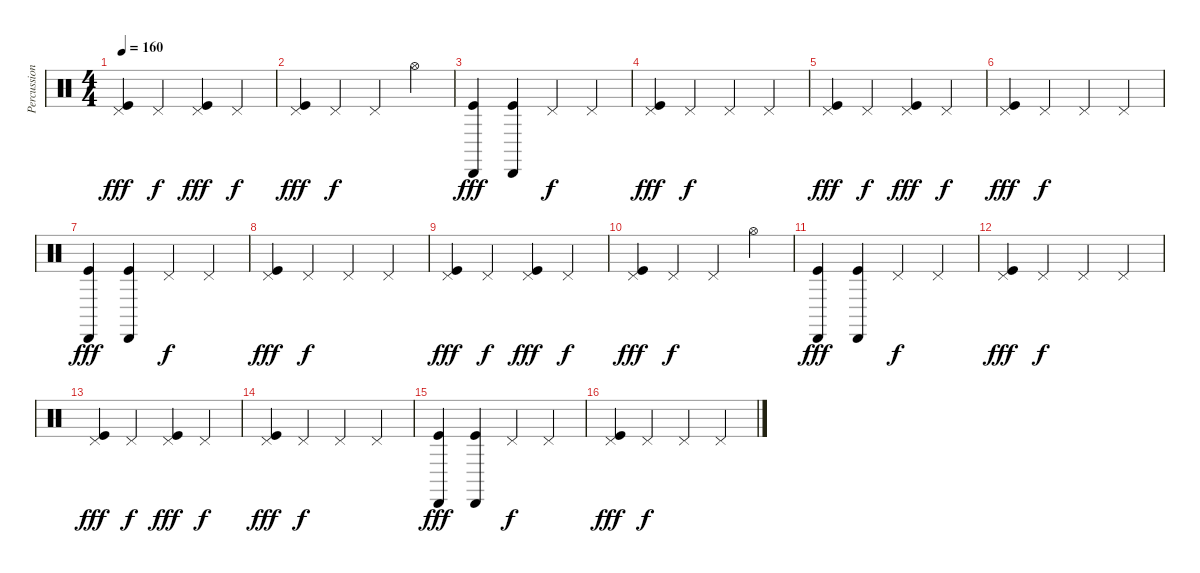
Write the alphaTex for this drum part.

\track ("Percussion" "Percussion") {solo instrument percussion}
\staff {score}
\articulation defaults
\ts (4 4)
\tempo 160
\clef neutral
\ks c
("Pedal Hi-Hat (hit)" "Kick (hit)").4{dy fff} "Pedal Hi-Hat (hit)".4{dy f} ("Pedal Hi-Hat (hit)" "Kick (hit)").4{dy fff} "Pedal Hi-Hat (hit)".4{dy f} |
("Pedal Hi-Hat (hit)" "Kick (hit)").4{dy fff} "Pedal Hi-Hat (hit)".4{dy f} "Pedal Hi-Hat (hit)".4 "Hi-Hat (open)".4 |
("Kick (hit)" "Cabasa (hit)").4{dy fff} ("Kick (hit)" "Cabasa (hit)").4 "Pedal Hi-Hat (hit)".4{dy f} "Pedal Hi-Hat (hit)".4 |
("Pedal Hi-Hat (hit)" "Kick (hit)").4{dy fff} "Pedal Hi-Hat (hit)".4{dy f} "Pedal Hi-Hat (hit)".4 "Pedal Hi-Hat (hit)".4 |
("Pedal Hi-Hat (hit)" "Kick (hit)").4{dy fff} "Pedal Hi-Hat (hit)".4{dy f} ("Pedal Hi-Hat (hit)" "Kick (hit)").4{dy fff} "Pedal Hi-Hat (hit)".4{dy f} |
("Pedal Hi-Hat (hit)" "Kick (hit)").4{dy fff} "Pedal Hi-Hat (hit)".4{dy f} "Pedal Hi-Hat (hit)".4 "Pedal Hi-Hat (hit)".4 |
("Kick (hit)" "Cabasa (hit)").4{dy fff} ("Kick (hit)" "Cabasa (hit)").4 "Pedal Hi-Hat (hit)".4{dy f} "Pedal Hi-Hat (hit)".4 |
("Pedal Hi-Hat (hit)" "Kick (hit)").4{dy fff} "Pedal Hi-Hat (hit)".4{dy f} "Pedal Hi-Hat (hit)".4 "Pedal Hi-Hat (hit)".4 |
("Pedal Hi-Hat (hit)" "Kick (hit)").4{dy fff} "Pedal Hi-Hat (hit)".4{dy f} ("Pedal Hi-Hat (hit)" "Kick (hit)").4{dy fff} "Pedal Hi-Hat (hit)".4{dy f} |
("Pedal Hi-Hat (hit)" "Kick (hit)").4{dy fff} "Pedal Hi-Hat (hit)".4{dy f} "Pedal Hi-Hat (hit)".4 "Hi-Hat (open)".4 |
("Kick (hit)" "Cabasa (hit)").4{dy fff} ("Kick (hit)" "Cabasa (hit)").4 "Pedal Hi-Hat (hit)".4{dy f} "Pedal Hi-Hat (hit)".4 |
("Pedal Hi-Hat (hit)" "Kick (hit)").4{dy fff} "Pedal Hi-Hat (hit)".4{dy f} "Pedal Hi-Hat (hit)".4 "Pedal Hi-Hat (hit)".4 |
("Pedal Hi-Hat (hit)" "Kick (hit)").4{dy fff} "Pedal Hi-Hat (hit)".4{dy f} ("Pedal Hi-Hat (hit)" "Kick (hit)").4{dy fff} "Pedal Hi-Hat (hit)".4{dy f} |
("Pedal Hi-Hat (hit)" "Kick (hit)").4{dy fff} "Pedal Hi-Hat (hit)".4{dy f} "Pedal Hi-Hat (hit)".4 "Pedal Hi-Hat (hit)".4 |
("Kick (hit)" "Cabasa (hit)").4{dy fff} ("Kick (hit)" "Cabasa (hit)").4 "Pedal Hi-Hat (hit)".4{dy f} "Pedal Hi-Hat (hit)".4 |
("Pedal Hi-Hat (hit)" "Kick (hit)").4{dy fff} "Pedal Hi-Hat (hit)".4{dy f} "Pedal Hi-Hat (hit)".4 "Pedal Hi-Hat (hit)".4
